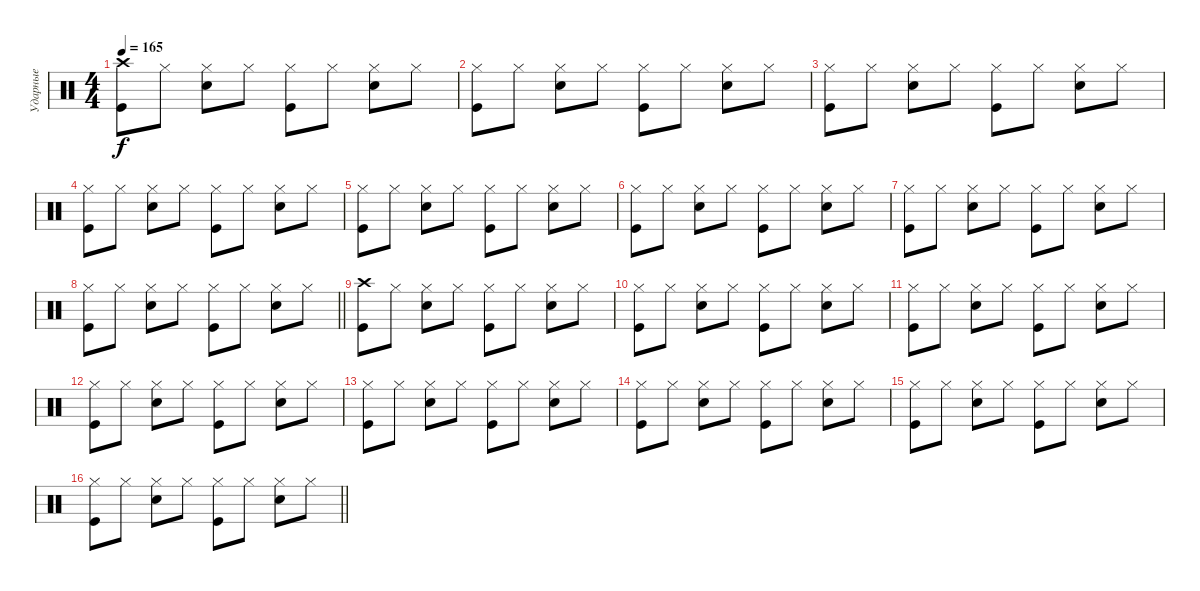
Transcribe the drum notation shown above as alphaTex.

\track ("Ударные" "Ударные") {instrument percussion}
\staff {score}
\articulation defaults
\ts (4 4)
\tempo 165
\clef neutral
\ks c
("Crash high (hit)" "Kick (hit)").8{dy f} "Hi-Hat (closed)".8 ("Hi-Hat (closed)" "Snare (hit) 2").8 "Hi-Hat (closed)".8 ("Hi-Hat (closed)" "Kick (hit)").8 "Hi-Hat (closed)".8 ("Hi-Hat (closed)" "Snare (hit) 2").8 "Hi-Hat (closed)".8 |
("Hi-Hat (closed)" "Kick (hit)").8 "Hi-Hat (closed)".8 ("Hi-Hat (closed)" "Snare (hit) 2").8 "Hi-Hat (closed)".8 ("Hi-Hat (closed)" "Kick (hit)").8 "Hi-Hat (closed)".8 ("Hi-Hat (closed)" "Snare (hit) 2").8 "Hi-Hat (closed)".8 |
("Hi-Hat (closed)" "Kick (hit)").8 "Hi-Hat (closed)".8 ("Hi-Hat (closed)" "Snare (hit) 2").8 "Hi-Hat (closed)".8 ("Hi-Hat (closed)" "Kick (hit)").8 "Hi-Hat (closed)".8 ("Hi-Hat (closed)" "Snare (hit) 2").8 "Hi-Hat (closed)".8 |
("Hi-Hat (closed)" "Kick (hit)").8 "Hi-Hat (closed)".8 ("Hi-Hat (closed)" "Snare (hit) 2").8 "Hi-Hat (closed)".8 ("Hi-Hat (closed)" "Kick (hit)").8 "Hi-Hat (closed)".8 ("Hi-Hat (closed)" "Snare (hit) 2").8 "Hi-Hat (closed)".8 |
("Hi-Hat (closed)" "Kick (hit)").8 "Hi-Hat (closed)".8 ("Hi-Hat (closed)" "Snare (hit) 2").8 "Hi-Hat (closed)".8 ("Hi-Hat (closed)" "Kick (hit)").8 "Hi-Hat (closed)".8 ("Hi-Hat (closed)" "Snare (hit) 2").8 "Hi-Hat (closed)".8 |
("Hi-Hat (closed)" "Kick (hit)").8 "Hi-Hat (closed)".8 ("Hi-Hat (closed)" "Snare (hit) 2").8 "Hi-Hat (closed)".8 ("Hi-Hat (closed)" "Kick (hit)").8 "Hi-Hat (closed)".8 ("Hi-Hat (closed)" "Snare (hit) 2").8 "Hi-Hat (closed)".8 |
("Hi-Hat (closed)" "Kick (hit)").8 "Hi-Hat (closed)".8 ("Hi-Hat (closed)" "Snare (hit) 2").8 "Hi-Hat (closed)".8 ("Hi-Hat (closed)" "Kick (hit)").8 "Hi-Hat (closed)".8 ("Hi-Hat (closed)" "Snare (hit) 2").8 "Hi-Hat (closed)".8 |
\barLineRight lightlight
("Hi-Hat (closed)" "Kick (hit)").8 "Hi-Hat (closed)".8 ("Hi-Hat (closed)" "Snare (hit) 2").8 "Hi-Hat (closed)".8 ("Hi-Hat (closed)" "Kick (hit)").8 "Hi-Hat (closed)".8 ("Hi-Hat (closed)" "Snare (hit) 2").8 "Hi-Hat (closed)".8 |
("Crash high (hit)" "Kick (hit)").8 "Hi-Hat (closed)".8 ("Hi-Hat (closed)" "Snare (hit) 2").8 "Hi-Hat (closed)".8 ("Hi-Hat (closed)" "Kick (hit)").8 "Hi-Hat (closed)".8 ("Hi-Hat (closed)" "Snare (hit) 2").8 "Hi-Hat (closed)".8 |
("Hi-Hat (closed)" "Kick (hit)").8 "Hi-Hat (closed)".8 ("Hi-Hat (closed)" "Snare (hit) 2").8 "Hi-Hat (closed)".8 ("Hi-Hat (closed)" "Kick (hit)").8 "Hi-Hat (closed)".8 ("Hi-Hat (closed)" "Snare (hit) 2").8 "Hi-Hat (closed)".8 |
("Hi-Hat (closed)" "Kick (hit)").8 "Hi-Hat (closed)".8 ("Hi-Hat (closed)" "Snare (hit) 2").8 "Hi-Hat (closed)".8 ("Hi-Hat (closed)" "Kick (hit)").8 "Hi-Hat (closed)".8 ("Hi-Hat (closed)" "Snare (hit) 2").8 "Hi-Hat (closed)".8 |
("Hi-Hat (closed)" "Kick (hit)").8 "Hi-Hat (closed)".8 ("Hi-Hat (closed)" "Snare (hit) 2").8 "Hi-Hat (closed)".8 ("Hi-Hat (closed)" "Kick (hit)").8 "Hi-Hat (closed)".8 ("Hi-Hat (closed)" "Snare (hit) 2").8 "Hi-Hat (closed)".8 |
("Hi-Hat (closed)" "Kick (hit)").8 "Hi-Hat (closed)".8 ("Hi-Hat (closed)" "Snare (hit) 2").8 "Hi-Hat (closed)".8 ("Hi-Hat (closed)" "Kick (hit)").8 "Hi-Hat (closed)".8 ("Hi-Hat (closed)" "Snare (hit) 2").8 "Hi-Hat (closed)".8 |
("Hi-Hat (closed)" "Kick (hit)").8 "Hi-Hat (closed)".8 ("Hi-Hat (closed)" "Snare (hit) 2").8 "Hi-Hat (closed)".8 ("Hi-Hat (closed)" "Kick (hit)").8 "Hi-Hat (closed)".8 ("Hi-Hat (closed)" "Snare (hit) 2").8 "Hi-Hat (closed)".8 |
("Hi-Hat (closed)" "Kick (hit)").8 "Hi-Hat (closed)".8 ("Hi-Hat (closed)" "Snare (hit) 2").8 "Hi-Hat (closed)".8 ("Hi-Hat (closed)" "Kick (hit)").8 "Hi-Hat (closed)".8 ("Hi-Hat (closed)" "Snare (hit) 2").8 "Hi-Hat (closed)".8 |
\barLineRight lightlight
("Hi-Hat (closed)" "Kick (hit)").8 "Hi-Hat (closed)".8 ("Hi-Hat (closed)" "Snare (hit) 2").8 "Hi-Hat (closed)".8 ("Hi-Hat (closed)" "Kick (hit)").8 "Hi-Hat (closed)".8 ("Hi-Hat (closed)" "Snare (hit) 2").8 "Hi-Hat (closed)".8
